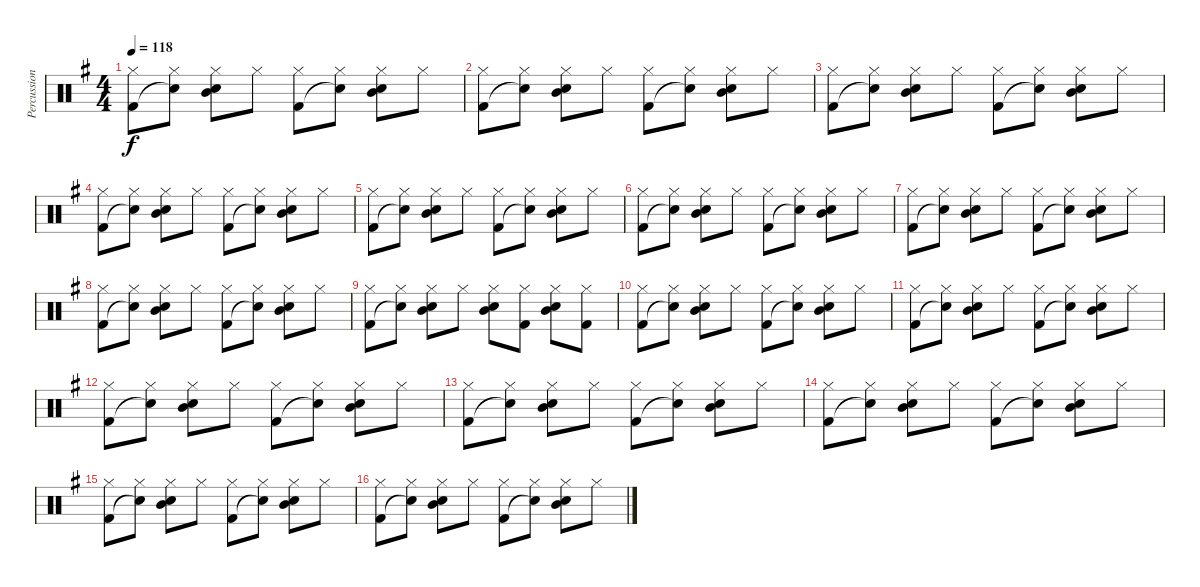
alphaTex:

\track ("Percussion" "Percussion") {instrument percussion}
\staff {score}
\articulation defaults
\ts (4 4)
\tempo 118
\clef neutral
\ks g
("Hi-Hat (closed)" "Kick (hit) 2").8{dy f} ("Hi-Hat (closed)" "Snare (hit)"{t}).8 ("Hi-Hat (closed)" "Snare (hit) 2" "Mid Tom (hit)").8 "Hi-Hat (closed)".8 ("Hi-Hat (closed)" "Kick (hit) 2").8 ("Hi-Hat (closed)" "Snare (hit)"{t}).8 ("Hi-Hat (closed)" "Snare (hit) 2" "Mid Tom (hit)").8 "Hi-Hat (closed)".8 |
("Hi-Hat (closed)" "Kick (hit) 2").8 ("Hi-Hat (closed)" "Snare (hit)"{t}).8 ("Hi-Hat (closed)" "Snare (hit) 2" "Mid Tom (hit)").8 "Hi-Hat (closed)".8 ("Hi-Hat (closed)" "Kick (hit) 2").8 ("Hi-Hat (closed)" "Snare (hit)"{t}).8 ("Hi-Hat (closed)" "Snare (hit) 2" "Mid Tom (hit)").8 "Hi-Hat (closed)".8 |
("Hi-Hat (closed)" "Kick (hit) 2").8 ("Hi-Hat (closed)" "Snare (hit)"{t}).8 ("Hi-Hat (closed)" "Snare (hit) 2" "Mid Tom (hit)").8 "Hi-Hat (closed)".8 ("Hi-Hat (closed)" "Kick (hit) 2").8 ("Hi-Hat (closed)" "Snare (hit)"{t}).8 ("Hi-Hat (closed)" "Snare (hit) 2" "Mid Tom (hit)").8 "Hi-Hat (closed)".8 |
("Hi-Hat (closed)" "Kick (hit) 2").8 ("Hi-Hat (closed)" "Snare (hit)"{t}).8 ("Hi-Hat (closed)" "Snare (hit) 2" "Mid Tom (hit)").8 "Hi-Hat (closed)".8 ("Hi-Hat (closed)" "Kick (hit) 2").8 ("Hi-Hat (closed)" "Snare (hit)"{t}).8 ("Hi-Hat (closed)" "Snare (hit) 2" "Mid Tom (hit)").8 "Hi-Hat (closed)".8 |
("Hi-Hat (closed)" "Kick (hit) 2").8 ("Hi-Hat (closed)" "Snare (hit)"{t}).8 ("Hi-Hat (closed)" "Snare (hit) 2" "Mid Tom (hit)").8 "Hi-Hat (closed)".8 ("Hi-Hat (closed)" "Kick (hit) 2").8 ("Hi-Hat (closed)" "Snare (hit)"{t}).8 ("Hi-Hat (closed)" "Snare (hit) 2" "Mid Tom (hit)").8 "Hi-Hat (closed)".8 |
("Hi-Hat (closed)" "Kick (hit) 2").8 ("Hi-Hat (closed)" "Snare (hit)"{t}).8 ("Hi-Hat (closed)" "Snare (hit) 2" "Mid Tom (hit)").8 "Hi-Hat (closed)".8 ("Hi-Hat (closed)" "Kick (hit) 2").8 ("Hi-Hat (closed)" "Snare (hit)"{t}).8 ("Hi-Hat (closed)" "Snare (hit) 2" "Mid Tom (hit)").8 "Hi-Hat (closed)".8 |
("Hi-Hat (closed)" "Kick (hit) 2").8 ("Hi-Hat (closed)" "Snare (hit)"{t}).8 ("Hi-Hat (closed)" "Snare (hit) 2" "Mid Tom (hit)").8 "Hi-Hat (closed)".8 ("Hi-Hat (closed)" "Kick (hit) 2").8 ("Hi-Hat (closed)" "Snare (hit)"{t}).8 ("Hi-Hat (closed)" "Snare (hit) 2" "Mid Tom (hit)").8 "Hi-Hat (closed)".8 |
("Hi-Hat (closed)" "Kick (hit) 2").8 ("Hi-Hat (closed)" "Snare (hit)"{t}).8 ("Hi-Hat (closed)" "Snare (hit) 2" "Mid Tom (hit)").8 "Hi-Hat (closed)".8 ("Hi-Hat (closed)" "Kick (hit) 2").8 ("Hi-Hat (closed)" "Snare (hit)"{t}).8 ("Hi-Hat (closed)" "Snare (hit) 2" "Mid Tom (hit)").8 "Hi-Hat (closed)".8 |
("Hi-Hat (closed)" "Kick (hit) 2").8 ("Hi-Hat (closed)" "Snare (hit)"{t}).8 ("Hi-Hat (closed)" "Snare (hit) 2" "Mid Tom (hit)").8 "Hi-Hat (closed)".8 ("Hi-Hat (closed)" "Snare (hit) 2" "Mid Tom (hit)").8 ("Hi-Hat (closed)" "Kick (hit) 2").8 ("Hi-Hat (closed)" "Snare (hit) 2" "Mid Tom (hit)").8 ("Hi-Hat (closed)" "Kick (hit) 2").8 |
("Hi-Hat (closed)" "Kick (hit) 2").8 ("Hi-Hat (closed)" "Snare (hit)"{t}).8 ("Hi-Hat (closed)" "Snare (hit) 2" "Mid Tom (hit)").8 "Hi-Hat (closed)".8 ("Hi-Hat (closed)" "Kick (hit) 2").8 ("Hi-Hat (closed)" "Snare (hit)"{t}).8 ("Hi-Hat (closed)" "Snare (hit) 2" "Mid Tom (hit)").8 "Hi-Hat (closed)".8 |
("Hi-Hat (closed)" "Kick (hit) 2").8 ("Hi-Hat (closed)" "Snare (hit)"{t}).8 ("Hi-Hat (closed)" "Snare (hit) 2" "Mid Tom (hit)").8 "Hi-Hat (closed)".8 ("Hi-Hat (closed)" "Kick (hit) 2").8 ("Hi-Hat (closed)" "Snare (hit)"{t}).8 ("Hi-Hat (closed)" "Snare (hit) 2" "Mid Tom (hit)").8 "Hi-Hat (closed)".8 |
("Hi-Hat (closed)" "Kick (hit) 2").8 ("Hi-Hat (closed)" "Snare (hit)"{t}).8 ("Hi-Hat (closed)" "Snare (hit) 2" "Mid Tom (hit)").8 "Hi-Hat (closed)".8 ("Hi-Hat (closed)" "Kick (hit) 2").8 ("Hi-Hat (closed)" "Snare (hit)"{t}).8 ("Hi-Hat (closed)" "Snare (hit) 2" "Mid Tom (hit)").8 "Hi-Hat (closed)".8 |
("Hi-Hat (closed)" "Kick (hit) 2").8 ("Hi-Hat (closed)" "Snare (hit)"{t}).8 ("Hi-Hat (closed)" "Snare (hit) 2" "Mid Tom (hit)").8 "Hi-Hat (closed)".8 ("Hi-Hat (closed)" "Kick (hit) 2").8 ("Hi-Hat (closed)" "Snare (hit)"{t}).8 ("Hi-Hat (closed)" "Snare (hit) 2" "Mid Tom (hit)").8 "Hi-Hat (closed)".8 |
("Hi-Hat (closed)" "Kick (hit) 2").8 ("Hi-Hat (closed)" "Snare (hit)"{t}).8 ("Hi-Hat (closed)" "Snare (hit) 2" "Mid Tom (hit)").8 "Hi-Hat (closed)".8 ("Hi-Hat (closed)" "Kick (hit) 2").8 ("Hi-Hat (closed)" "Snare (hit)"{t}).8 ("Hi-Hat (closed)" "Snare (hit) 2" "Mid Tom (hit)").8 "Hi-Hat (closed)".8 |
("Hi-Hat (closed)" "Kick (hit) 2").8 ("Hi-Hat (closed)" "Snare (hit)"{t}).8 ("Hi-Hat (closed)" "Snare (hit) 2" "Mid Tom (hit)").8 "Hi-Hat (closed)".8 ("Hi-Hat (closed)" "Kick (hit) 2").8 ("Hi-Hat (closed)" "Snare (hit)"{t}).8 ("Hi-Hat (closed)" "Snare (hit) 2" "Mid Tom (hit)").8 "Hi-Hat (closed)".8 |
("Hi-Hat (closed)" "Kick (hit) 2").8 ("Hi-Hat (closed)" "Snare (hit)"{t}).8 ("Hi-Hat (closed)" "Snare (hit) 2" "Mid Tom (hit)").8 "Hi-Hat (closed)".8 ("Hi-Hat (closed)" "Kick (hit) 2").8 ("Hi-Hat (closed)" "Snare (hit)"{t}).8 ("Hi-Hat (closed)" "Snare (hit) 2" "Mid Tom (hit)").8 "Hi-Hat (closed)".8
